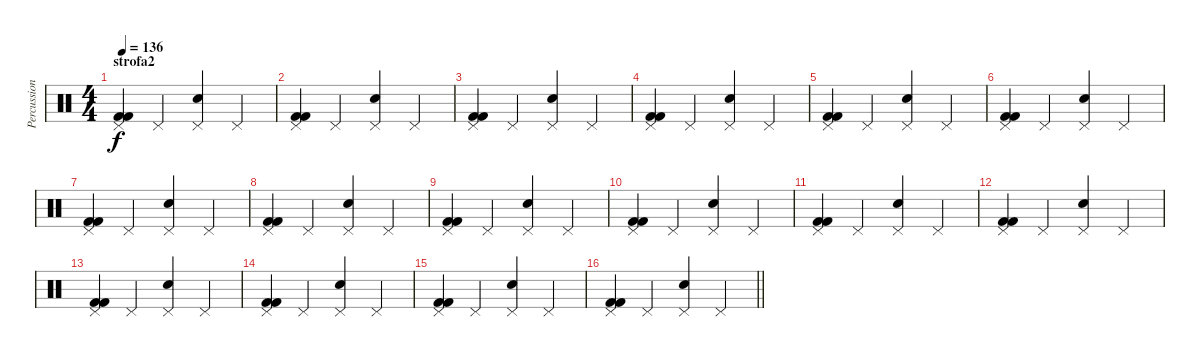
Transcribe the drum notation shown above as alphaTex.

\track ("Percussioni" "Percussion") {instrument percussion}
\staff {score}
\articulation defaults
\ts (4 4)
\section ("" "strofa2")
\tempo 136
\clef neutral
\ks c
("Pedal Hi-Hat (hit)" "Kick (hit) 2" "Kick (hit) 2").4{dy f} "Pedal Hi-Hat (hit)".4 ("Pedal Hi-Hat (hit)" "Electric Snare (hit)").4 "Pedal Hi-Hat (hit)".4 |
("Pedal Hi-Hat (hit)" "Kick (hit) 2" "Kick (hit) 2").4 "Pedal Hi-Hat (hit)".4 ("Pedal Hi-Hat (hit)" "Electric Snare (hit)").4 "Pedal Hi-Hat (hit)".4 |
("Pedal Hi-Hat (hit)" "Kick (hit) 2" "Kick (hit) 2").4 "Pedal Hi-Hat (hit)".4 ("Pedal Hi-Hat (hit)" "Electric Snare (hit)").4 "Pedal Hi-Hat (hit)".4 |
("Pedal Hi-Hat (hit)" "Kick (hit) 2" "Kick (hit) 2").4 "Pedal Hi-Hat (hit)".4 ("Pedal Hi-Hat (hit)" "Electric Snare (hit)").4 "Pedal Hi-Hat (hit)".4 |
("Pedal Hi-Hat (hit)" "Kick (hit) 2" "Kick (hit) 2").4 "Pedal Hi-Hat (hit)".4 ("Pedal Hi-Hat (hit)" "Electric Snare (hit)").4 "Pedal Hi-Hat (hit)".4 |
("Pedal Hi-Hat (hit)" "Kick (hit) 2" "Kick (hit) 2").4 "Pedal Hi-Hat (hit)".4 ("Pedal Hi-Hat (hit)" "Electric Snare (hit)").4 "Pedal Hi-Hat (hit)".4 |
("Pedal Hi-Hat (hit)" "Kick (hit) 2" "Kick (hit) 2").4 "Pedal Hi-Hat (hit)".4 ("Pedal Hi-Hat (hit)" "Electric Snare (hit)").4 "Pedal Hi-Hat (hit)".4 |
("Pedal Hi-Hat (hit)" "Kick (hit) 2" "Kick (hit) 2").4 "Pedal Hi-Hat (hit)".4 ("Pedal Hi-Hat (hit)" "Electric Snare (hit)").4 "Pedal Hi-Hat (hit)".4 |
("Pedal Hi-Hat (hit)" "Kick (hit) 2" "Kick (hit) 2").4 "Pedal Hi-Hat (hit)".4 ("Pedal Hi-Hat (hit)" "Electric Snare (hit)").4 "Pedal Hi-Hat (hit)".4 |
("Pedal Hi-Hat (hit)" "Kick (hit) 2" "Kick (hit) 2").4 "Pedal Hi-Hat (hit)".4 ("Pedal Hi-Hat (hit)" "Electric Snare (hit)").4 "Pedal Hi-Hat (hit)".4 |
("Pedal Hi-Hat (hit)" "Kick (hit) 2" "Kick (hit) 2").4 "Pedal Hi-Hat (hit)".4 ("Pedal Hi-Hat (hit)" "Electric Snare (hit)").4 "Pedal Hi-Hat (hit)".4 |
("Pedal Hi-Hat (hit)" "Kick (hit) 2" "Kick (hit) 2").4 "Pedal Hi-Hat (hit)".4 ("Pedal Hi-Hat (hit)" "Electric Snare (hit)").4 "Pedal Hi-Hat (hit)".4 |
("Pedal Hi-Hat (hit)" "Kick (hit) 2" "Kick (hit) 2").4 "Pedal Hi-Hat (hit)".4 ("Pedal Hi-Hat (hit)" "Electric Snare (hit)").4 "Pedal Hi-Hat (hit)".4 |
("Pedal Hi-Hat (hit)" "Kick (hit) 2" "Kick (hit) 2").4 "Pedal Hi-Hat (hit)".4 ("Pedal Hi-Hat (hit)" "Electric Snare (hit)").4 "Pedal Hi-Hat (hit)".4 |
("Pedal Hi-Hat (hit)" "Kick (hit) 2" "Kick (hit) 2").4 "Pedal Hi-Hat (hit)".4 ("Pedal Hi-Hat (hit)" "Electric Snare (hit)").4 "Pedal Hi-Hat (hit)".4 |
\barLineRight lightlight
("Pedal Hi-Hat (hit)" "Kick (hit) 2" "Kick (hit) 2").4 "Pedal Hi-Hat (hit)".4 ("Pedal Hi-Hat (hit)" "Electric Snare (hit)").4 "Pedal Hi-Hat (hit)".4
